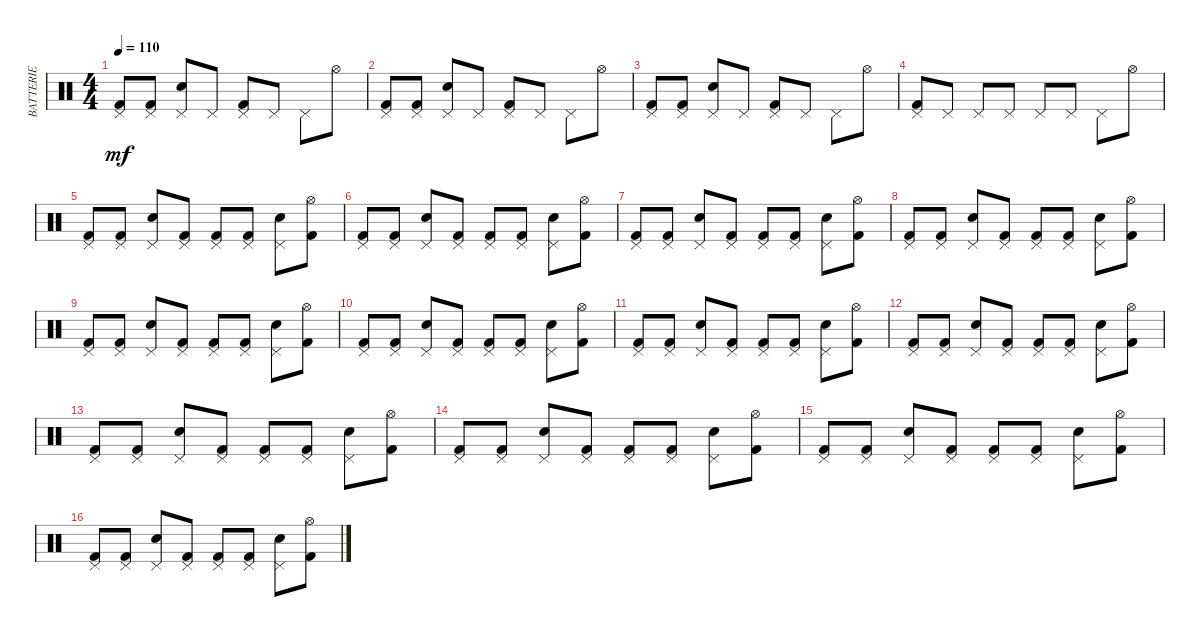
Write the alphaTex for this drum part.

\track ("BATTERIE" "BATTERIE") {instrument percussion}
\staff {score}
\articulation defaults
\ts (4 4)
\tempo 110
\clef neutral
\ks c
("Pedal Hi-Hat (hit)" "Kick (hit) 2").8{dy mf} ("Pedal Hi-Hat (hit)" "Kick (hit) 2").8 ("Pedal Hi-Hat (hit)" "Electric Snare (hit)").8 "Pedal Hi-Hat (hit)".8 ("Pedal Hi-Hat (hit)" "Kick (hit) 2").8 "Pedal Hi-Hat (hit)".8 "Pedal Hi-Hat (hit)".8 "Hi-Hat (open)".8 |
("Kick (hit) 2" "Pedal Hi-Hat (hit)").8 ("Kick (hit) 2" "Pedal Hi-Hat (hit)").8 ("Electric Snare (hit)" "Pedal Hi-Hat (hit)").8 "Pedal Hi-Hat (hit)".8 ("Kick (hit) 2" "Pedal Hi-Hat (hit)").8 "Pedal Hi-Hat (hit)".8 "Pedal Hi-Hat (hit)".8 "Hi-Hat (open)".8 |
("Pedal Hi-Hat (hit)" "Kick (hit) 2").8 ("Pedal Hi-Hat (hit)" "Kick (hit) 2").8 ("Pedal Hi-Hat (hit)" "Electric Snare (hit)").8 "Pedal Hi-Hat (hit)".8 ("Pedal Hi-Hat (hit)" "Kick (hit) 2").8 "Pedal Hi-Hat (hit)".8 "Pedal Hi-Hat (hit)".8 "Hi-Hat (open)".8 |
("Pedal Hi-Hat (hit)" "Kick (hit) 2").8 "Pedal Hi-Hat (hit)".8 "Pedal Hi-Hat (hit)".8 "Pedal Hi-Hat (hit)".8 "Pedal Hi-Hat (hit)".8 "Pedal Hi-Hat (hit)".8 "Pedal Hi-Hat (hit)".8 "Hi-Hat (open)".8 |
("Pedal Hi-Hat (hit)" "Kick (hit) 2").8 ("Pedal Hi-Hat (hit)" "Kick (hit) 2").8 ("Electric Snare (hit)" "Pedal Hi-Hat (hit)").8 ("Kick (hit) 2" "Pedal Hi-Hat (hit)").8 ("Pedal Hi-Hat (hit)" "Kick (hit) 2").8 ("Kick (hit) 2" "Pedal Hi-Hat (hit)").8 ("Electric Snare (hit)" "Pedal Hi-Hat (hit)").8 ("Kick (hit) 2" "Hi-Hat (open)").8 |
("Kick (hit) 2" "Pedal Hi-Hat (hit)").8 ("Kick (hit) 2" "Pedal Hi-Hat (hit)").8 ("Pedal Hi-Hat (hit)" "Electric Snare (hit)").8 ("Pedal Hi-Hat (hit)" "Kick (hit) 2").8 ("Kick (hit) 2" "Pedal Hi-Hat (hit)").8 ("Kick (hit) 2" "Pedal Hi-Hat (hit)").8 ("Pedal Hi-Hat (hit)" "Electric Snare (hit)").8 ("Kick (hit) 2" "Hi-Hat (open)").8 |
("Kick (hit) 2" "Pedal Hi-Hat (hit)").8 ("Kick (hit) 2" "Pedal Hi-Hat (hit)").8 ("Pedal Hi-Hat (hit)" "Electric Snare (hit)").8 ("Pedal Hi-Hat (hit)" "Kick (hit) 2").8 ("Kick (hit) 2" "Pedal Hi-Hat (hit)").8 ("Pedal Hi-Hat (hit)" "Kick (hit) 2").8 ("Pedal Hi-Hat (hit)" "Electric Snare (hit)").8 ("Hi-Hat (open)" "Kick (hit) 2").8 |
("Kick (hit) 2" "Pedal Hi-Hat (hit)").8 ("Kick (hit) 2" "Pedal Hi-Hat (hit)").8 ("Pedal Hi-Hat (hit)" "Electric Snare (hit)").8 ("Pedal Hi-Hat (hit)" "Kick (hit) 2").8 ("Kick (hit) 2" "Pedal Hi-Hat (hit)").8 ("Pedal Hi-Hat (hit)" "Kick (hit) 2").8 ("Pedal Hi-Hat (hit)" "Electric Snare (hit)").8 ("Hi-Hat (open)" "Kick (hit) 2").8 |
("Pedal Hi-Hat (hit)" "Kick (hit) 2").8 ("Pedal Hi-Hat (hit)" "Kick (hit) 2").8 ("Electric Snare (hit)" "Pedal Hi-Hat (hit)").8 ("Kick (hit) 2" "Pedal Hi-Hat (hit)").8 ("Pedal Hi-Hat (hit)" "Kick (hit) 2").8 ("Kick (hit) 2" "Pedal Hi-Hat (hit)").8 ("Electric Snare (hit)" "Pedal Hi-Hat (hit)").8 ("Kick (hit) 2" "Hi-Hat (open)").8 |
("Pedal Hi-Hat (hit)" "Kick (hit) 2").8 ("Pedal Hi-Hat (hit)" "Kick (hit) 2").8 ("Electric Snare (hit)" "Pedal Hi-Hat (hit)").8 ("Kick (hit) 2" "Pedal Hi-Hat (hit)").8 ("Pedal Hi-Hat (hit)" "Kick (hit) 2").8 ("Kick (hit) 2" "Pedal Hi-Hat (hit)").8 ("Electric Snare (hit)" "Pedal Hi-Hat (hit)").8 ("Kick (hit) 2" "Hi-Hat (open)").8 |
("Kick (hit) 2" "Pedal Hi-Hat (hit)").8 ("Kick (hit) 2" "Pedal Hi-Hat (hit)").8 ("Pedal Hi-Hat (hit)" "Electric Snare (hit)").8 ("Pedal Hi-Hat (hit)" "Kick (hit) 2").8 ("Kick (hit) 2" "Pedal Hi-Hat (hit)").8 ("Pedal Hi-Hat (hit)" "Kick (hit) 2").8 ("Pedal Hi-Hat (hit)" "Electric Snare (hit)").8 ("Hi-Hat (open)" "Kick (hit) 2").8 |
("Kick (hit) 2" "Pedal Hi-Hat (hit)").8 ("Kick (hit) 2" "Pedal Hi-Hat (hit)").8 ("Pedal Hi-Hat (hit)" "Electric Snare (hit)").8 ("Pedal Hi-Hat (hit)" "Kick (hit) 2").8 ("Kick (hit) 2" "Pedal Hi-Hat (hit)").8 ("Pedal Hi-Hat (hit)" "Kick (hit) 2").8 ("Pedal Hi-Hat (hit)" "Electric Snare (hit)").8 ("Hi-Hat (open)" "Kick (hit) 2").8 |
("Kick (hit) 2" "Pedal Hi-Hat (hit)").8 ("Kick (hit) 2" "Pedal Hi-Hat (hit)").8 ("Pedal Hi-Hat (hit)" "Electric Snare (hit)").8 ("Pedal Hi-Hat (hit)" "Kick (hit) 2").8 ("Kick (hit) 2" "Pedal Hi-Hat (hit)").8 ("Pedal Hi-Hat (hit)" "Kick (hit) 2").8 ("Electric Snare (hit)" "Pedal Hi-Hat (hit)").8 ("Kick (hit) 2" "Hi-Hat (open)").8 |
("Kick (hit) 2" "Pedal Hi-Hat (hit)").8 ("Kick (hit) 2" "Pedal Hi-Hat (hit)").8 ("Pedal Hi-Hat (hit)" "Electric Snare (hit)").8 ("Pedal Hi-Hat (hit)" "Kick (hit) 2").8 ("Kick (hit) 2" "Pedal Hi-Hat (hit)").8 ("Pedal Hi-Hat (hit)" "Kick (hit) 2").8 ("Pedal Hi-Hat (hit)" "Electric Snare (hit)").8 ("Hi-Hat (open)" "Kick (hit) 2").8 |
("Kick (hit) 2" "Pedal Hi-Hat (hit)").8 ("Kick (hit) 2" "Pedal Hi-Hat (hit)").8 ("Pedal Hi-Hat (hit)" "Electric Snare (hit)").8 ("Pedal Hi-Hat (hit)" "Kick (hit) 2").8 ("Kick (hit) 2" "Pedal Hi-Hat (hit)").8 ("Pedal Hi-Hat (hit)" "Kick (hit) 2").8 ("Pedal Hi-Hat (hit)" "Electric Snare (hit)").8 ("Hi-Hat (open)" "Kick (hit) 2").8 |
("Kick (hit) 2" "Pedal Hi-Hat (hit)").8 ("Kick (hit) 2" "Pedal Hi-Hat (hit)").8 ("Pedal Hi-Hat (hit)" "Electric Snare (hit)").8 ("Kick (hit) 2" "Pedal Hi-Hat (hit)").8 ("Kick (hit) 2" "Pedal Hi-Hat (hit)").8 ("Pedal Hi-Hat (hit)" "Kick (hit) 2").8 ("Pedal Hi-Hat (hit)" "Electric Snare (hit)").8 ("Hi-Hat (open)" "Kick (hit) 2").8
